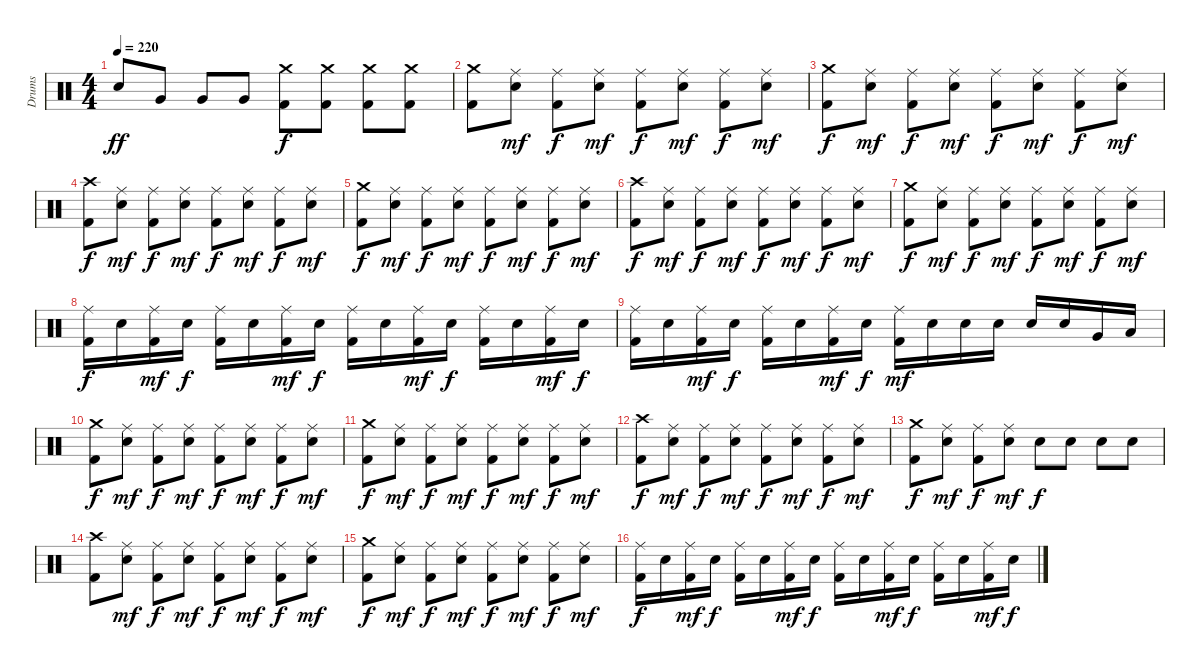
\track ("Drums" "Drums") {instrument percussion}
\staff {score}
\articulation defaults
\ts (4 4)
\tempo 220
\clef neutral
\ks c "Snare (hit) 2".8{dy ff} "Very Low Tom (hit)".8 "Very Low Tom (hit)".8 "Very Low Tom (hit)".8
("Crash medium (hit)" "Kick (hit) 2").8{dy f} ("Crash medium (hit)" "Kick (hit) 2").8 ("Crash medium (hit)" "Kick (hit) 2").8 ("Crash medium (hit)" "Kick (hit) 2").8 |
("Crash medium (hit)" "Kick (hit) 2").8 ("Ride (middle)" "Snare (hit) 2").8{dy mf} ("Ride (middle)" "Kick (hit) 2").8{dy f} ("Ride (middle)" "Snare (hit) 2").8{dy mf} ("Ride (middle)" "Kick (hit) 2").8{dy f} ("Ride (middle)" "Snare (hit) 2").8{dy mf} ("Ride (middle)" "Kick (hit) 2").8{dy f} ("Ride (middle)" "Snare (hit) 2").8{dy mf} |
("Crash medium (hit)" "Kick (hit) 2").8{dy f} ("Ride (middle)" "Snare (hit) 2").8{dy mf} ("Ride (middle)" "Kick (hit) 2").8{dy f} ("Ride (middle)" "Snare (hit) 2").8{dy mf} ("Ride (middle)" "Kick (hit) 2").8{dy f} ("Ride (middle)" "Snare (hit) 2").8{dy mf} ("Ride (middle)" "Kick (hit) 2").8{dy f} ("Ride (middle)" "Snare (hit) 2").8{dy mf} |
("Crash high (hit)" "Kick (hit) 2").8{dy f} ("Ride (middle)" "Snare (hit) 2").8{dy mf} ("Ride (middle)" "Kick (hit) 2").8{dy f} ("Ride (middle)" "Snare (hit) 2").8{dy mf} ("Ride (middle)" "Kick (hit) 2").8{dy f} ("Ride (middle)" "Snare (hit) 2").8{dy mf} ("Ride (middle)" "Kick (hit) 2").8{dy f} ("Ride (middle)" "Snare (hit) 2").8{dy mf} |
("Crash medium (hit)" "Kick (hit) 2").8{dy f} ("Ride (middle)" "Snare (hit) 2").8{dy mf} ("Ride (middle)" "Kick (hit) 2").8{dy f} ("Ride (middle)" "Snare (hit) 2").8{dy mf} ("Ride (middle)" "Kick (hit) 2").8{dy f} ("Ride (middle)" "Snare (hit) 2").8{dy mf} ("Ride (middle)" "Kick (hit) 2").8{dy f} ("Ride (middle)" "Snare (hit) 2").8{dy mf} |
("Crash high (hit)" "Kick (hit) 2").8{dy f} ("Ride (middle)" "Snare (hit) 2").8{dy mf} ("Ride (middle)" "Kick (hit) 2").8{dy f} ("Ride (middle)" "Snare (hit) 2").8{dy mf} ("Ride (middle)" "Kick (hit) 2").8{dy f} ("Ride (middle)" "Snare (hit) 2").8{dy mf} ("Ride (middle)" "Kick (hit) 2").8{dy f} ("Ride (middle)" "Snare (hit) 2").8{dy mf} |
("Crash medium (hit)" "Kick (hit) 2").8{dy f} ("Ride (middle)" "Snare (hit) 2").8{dy mf} ("Ride (middle)" "Kick (hit) 2").8{dy f} ("Ride (middle)" "Snare (hit) 2").8{dy mf} ("Ride (middle)" "Kick (hit) 2").8{dy f} ("Ride (middle)" "Snare (hit) 2").8{dy mf} ("Ride (middle)" "Kick (hit) 2").8{dy f} ("Ride (middle)" "Snare (hit) 2").8{dy mf} |
("Ride (middle)" "Kick (hit) 2").16{dy f} "Snare (hit) 2".16 ("Ride (middle)" "Kick (hit) 2").16{dy mf} "Snare (hit) 2".16{dy f} ("Ride (middle)" "Kick (hit) 2").16 "Snare (hit) 2".16 ("Ride (middle)" "Kick (hit) 2").16{dy mf} "Snare (hit) 2".16{dy f} ("Ride (middle)" "Kick (hit) 2").16 "Snare (hit) 2".16 ("Ride (middle)" "Kick (hit) 2").16{dy mf} "Snare (hit) 2".16{dy f} ("Ride (middle)" "Kick (hit) 2").16 "Snare (hit) 2".16 ("Ride (middle)" "Kick (hit) 2").16{dy mf} "Snare (hit) 2".16{dy f} |
("Ride (middle)" "Kick (hit) 2").16 "Snare (hit) 2".16 ("Ride (middle)" "Kick (hit) 2").16{dy mf} "Snare (hit) 2".16{dy f} ("Ride (middle)" "Kick (hit) 2").16 "Snare (hit) 2".16 ("Ride (middle)" "Kick (hit) 2").16{dy mf} "Snare (hit) 2".16{dy f} ("Ride (middle)" "Kick (hit) 2").16{dy mf} "Snare (hit) 2".16 "Snare (hit) 2".16 "Snare (hit) 2".16 "Snare (hit) 2".16 "Snare (hit) 2".16 "Very Low Tom (hit)".16 "Low Floor Tom (hit)".16 |
("Crash medium (hit)" "Kick (hit) 2").8{dy f} ("Ride (middle)" "Snare (hit) 2").8{dy mf} ("Ride (middle)" "Kick (hit) 2").8{dy f} ("Ride (middle)" "Snare (hit) 2").8{dy mf} ("Ride (middle)" "Kick (hit) 2").8{dy f} ("Ride (middle)" "Snare (hit) 2").8{dy mf} ("Ride (middle)" "Kick (hit) 2").8{dy f} ("Ride (middle)" "Snare (hit) 2").8{dy mf} |
("Crash medium (hit)" "Kick (hit) 2").8{dy f} ("Ride (middle)" "Snare (hit) 2").8{dy mf} ("Ride (middle)" "Kick (hit) 2").8{dy f} ("Ride (middle)" "Snare (hit) 2").8{dy mf} ("Ride (middle)" "Kick (hit) 2").8{dy f} ("Ride (middle)" "Snare (hit) 2").8{dy mf} ("Ride (middle)" "Kick (hit) 2").8{dy f} ("Ride (middle)" "Snare (hit) 2").8{dy mf} |
("Crash high (hit)" "Kick (hit) 2").8{dy f} ("Ride (middle)" "Snare (hit) 2").8{dy mf} ("Ride (middle)" "Kick (hit) 2").8{dy f} ("Ride (middle)" "Snare (hit) 2").8{dy mf} ("Ride (middle)" "Kick (hit) 2").8{dy f} ("Ride (middle)" "Snare (hit) 2").8{dy mf} ("Ride (middle)" "Kick (hit) 2").8{dy f} ("Ride (middle)" "Snare (hit) 2").8{dy mf} |
("Crash medium (hit)" "Kick (hit) 2").8{dy f} ("Ride (middle)" "Snare (hit) 2").8{dy mf} ("Ride (middle)" "Kick (hit) 2").8{dy f} ("Ride (middle)" "Snare (hit) 2").8{dy mf} "Snare (hit) 2".8{dy f} "Snare (hit) 2".8 "Snare (hit) 2".8 "Snare (hit) 2".8 |
("Crash high (hit)" "Kick (hit) 2").8 ("Ride (middle)" "Snare (hit) 2").8{dy mf} ("Ride (middle)" "Kick (hit) 2").8{dy f} ("Ride (middle)" "Snare (hit) 2").8{dy mf} ("Ride (middle)" "Kick (hit) 2").8{dy f} ("Ride (middle)" "Snare (hit) 2").8{dy mf} ("Ride (middle)" "Kick (hit) 2").8{dy f} ("Ride (middle)" "Snare (hit) 2").8{dy mf} |
("Crash medium (hit)" "Kick (hit) 2").8{dy f} ("Ride (middle)" "Snare (hit) 2").8{dy mf} ("Ride (middle)" "Kick (hit) 2").8{dy f} ("Ride (middle)" "Snare (hit) 2").8{dy mf} ("Ride (middle)" "Kick (hit) 2").8{dy f} ("Ride (middle)" "Snare (hit) 2").8{dy mf} ("Ride (middle)" "Kick (hit) 2").8{dy f} ("Ride (middle)" "Snare (hit) 2").8{dy mf} |
("Ride (middle)" "Kick (hit) 2").16{dy f} "Snare (hit) 2".16 ("Ride (middle)" "Kick (hit) 2").16{dy mf} "Snare (hit) 2".16{dy f} ("Ride (middle)" "Kick (hit) 2").16 "Snare (hit) 2".16 ("Ride (middle)" "Kick (hit) 2").16{dy mf} "Snare (hit) 2".16{dy f} ("Ride (middle)" "Kick (hit) 2").16 "Snare (hit) 2".16 ("Ride (middle)" "Kick (hit) 2").16{dy mf} "Snare (hit) 2".16{dy f} ("Ride (middle)" "Kick (hit) 2").16 "Snare (hit) 2".16 ("Ride (middle)" "Kick (hit) 2").16{dy mf} "Snare (hit) 2".16{dy f}
